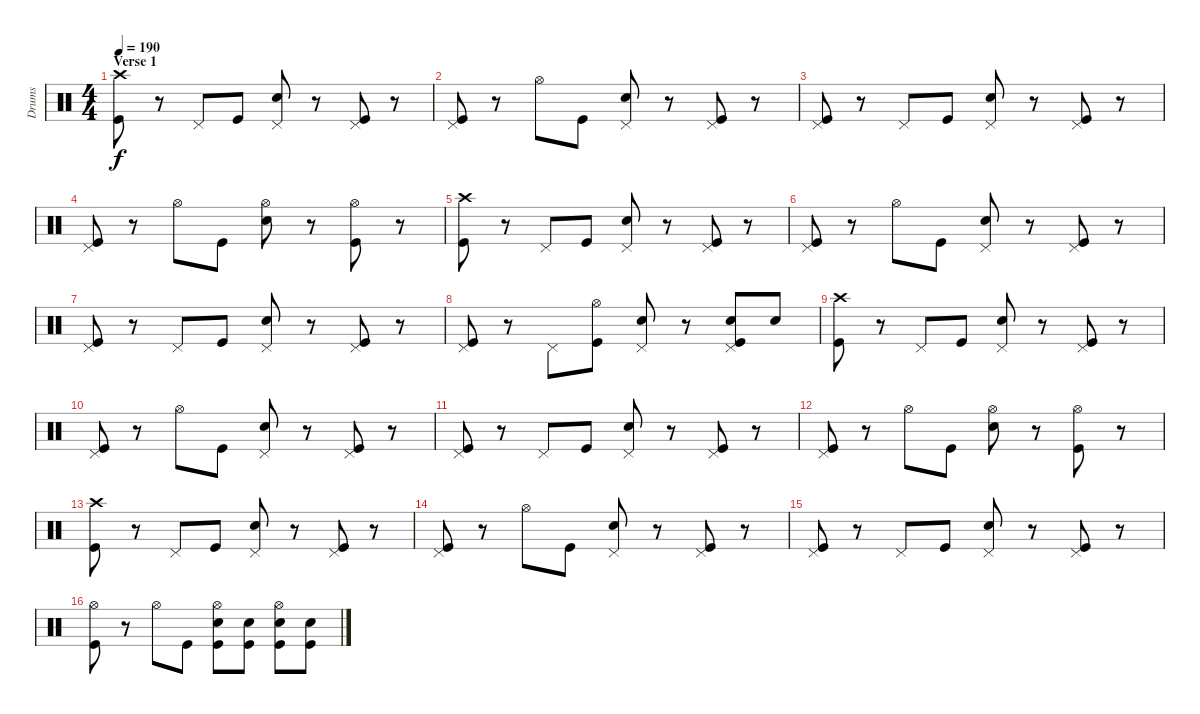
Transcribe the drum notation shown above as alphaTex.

\track ("Drums" "Drums") {instrument percussion}
\staff {score}
\articulation defaults
\ts (4 4)
\section ("" "Verse 1")
\tempo 190
\clef neutral
\ks c
("Crash high (hit)" "Kick (hit)").8{dy f} r.8 "Pedal Hi-Hat (hit)".8 "Kick (hit)".8 ("Pedal Hi-Hat (hit)" "Snare (hit) 2").8 r.8 ("Pedal Hi-Hat (hit)" "Kick (hit)").8 r.8 |
("Pedal Hi-Hat (hit)" "Kick (hit)").8 r.8 "Hi-Hat (open)".8 "Kick (hit)".8 ("Pedal Hi-Hat (hit)" "Snare (hit) 2").8 r.8 ("Pedal Hi-Hat (hit)" "Kick (hit)").8 r.8 |
("Pedal Hi-Hat (hit)" "Kick (hit)").8 r.8 "Pedal Hi-Hat (hit)".8 "Kick (hit)".8 ("Pedal Hi-Hat (hit)" "Snare (hit) 2").8 r.8 ("Pedal Hi-Hat (hit)" "Kick (hit)").8 r.8 |
("Pedal Hi-Hat (hit)" "Kick (hit)").8 r.8 "Hi-Hat (open)".8 "Kick (hit)".8 ("Hi-Hat (open)" "Snare (hit) 2").8 r.8 ("Hi-Hat (open)" "Kick (hit)").8 r.8 |
("Crash high (hit)" "Kick (hit)").8 r.8 "Pedal Hi-Hat (hit)".8 "Kick (hit)".8 ("Pedal Hi-Hat (hit)" "Snare (hit) 2").8 r.8 ("Pedal Hi-Hat (hit)" "Kick (hit)").8 r.8 |
("Pedal Hi-Hat (hit)" "Kick (hit)").8 r.8 "Hi-Hat (open)".8 "Kick (hit)".8 ("Pedal Hi-Hat (hit)" "Snare (hit) 2").8 r.8 ("Pedal Hi-Hat (hit)" "Kick (hit)").8 r.8 |
("Pedal Hi-Hat (hit)" "Kick (hit)").8 r.8 "Pedal Hi-Hat (hit)".8 "Kick (hit)".8 ("Pedal Hi-Hat (hit)" "Snare (hit) 2").8 r.8 ("Pedal Hi-Hat (hit)" "Kick (hit)").8 r.8 |
("Pedal Hi-Hat (hit)" "Kick (hit)").8 r.8 "Pedal Hi-Hat (hit)".8 ("Hi-Hat (open)" "Kick (hit)").8 ("Pedal Hi-Hat (hit)" "Snare (hit) 2").8 r.8 ("Pedal Hi-Hat (hit)" "Snare (hit) 2" "Kick (hit)").8 "Snare (hit) 2".8 |
("Crash high (hit)" "Kick (hit)").8 r.8 "Pedal Hi-Hat (hit)".8 "Kick (hit)".8 ("Pedal Hi-Hat (hit)" "Snare (hit) 2").8 r.8 ("Pedal Hi-Hat (hit)" "Kick (hit)").8 r.8 |
("Pedal Hi-Hat (hit)" "Kick (hit)").8 r.8 "Hi-Hat (open)".8 "Kick (hit)".8 ("Pedal Hi-Hat (hit)" "Snare (hit) 2").8 r.8 ("Pedal Hi-Hat (hit)" "Kick (hit)").8 r.8 |
("Pedal Hi-Hat (hit)" "Kick (hit)").8 r.8 "Pedal Hi-Hat (hit)".8 "Kick (hit)".8 ("Pedal Hi-Hat (hit)" "Snare (hit) 2").8 r.8 ("Pedal Hi-Hat (hit)" "Kick (hit)").8 r.8 |
("Pedal Hi-Hat (hit)" "Kick (hit)").8 r.8 "Hi-Hat (open)".8 "Kick (hit)".8 ("Hi-Hat (open)" "Snare (hit) 2").8 r.8 ("Hi-Hat (open)" "Kick (hit)").8 r.8 |
("Crash high (hit)" "Kick (hit)").8 r.8 "Pedal Hi-Hat (hit)".8 "Kick (hit)".8 ("Pedal Hi-Hat (hit)" "Snare (hit) 2").8 r.8 ("Pedal Hi-Hat (hit)" "Kick (hit)").8 r.8 |
("Pedal Hi-Hat (hit)" "Kick (hit)").8 r.8 "Hi-Hat (open)".8 "Kick (hit)".8 ("Pedal Hi-Hat (hit)" "Snare (hit) 2").8 r.8 ("Pedal Hi-Hat (hit)" "Kick (hit)").8 r.8 |
("Pedal Hi-Hat (hit)" "Kick (hit)").8 r.8 "Pedal Hi-Hat (hit)".8 "Kick (hit)".8 ("Pedal Hi-Hat (hit)" "Snare (hit) 2").8 r.8 ("Pedal Hi-Hat (hit)" "Kick (hit)").8 r.8 |
("Hi-Hat (open)" "Kick (hit)").8 r.8 "Hi-Hat (open)".8 "Kick (hit)".8 ("Hi-Hat (open)" "Snare (hit) 2" "Kick (hit)").8 ("Snare (hit) 2" "Kick (hit)").8 ("Hi-Hat (open)" "Snare (hit) 2" "Kick (hit)").8 ("Snare (hit) 2" "Kick (hit)").8
